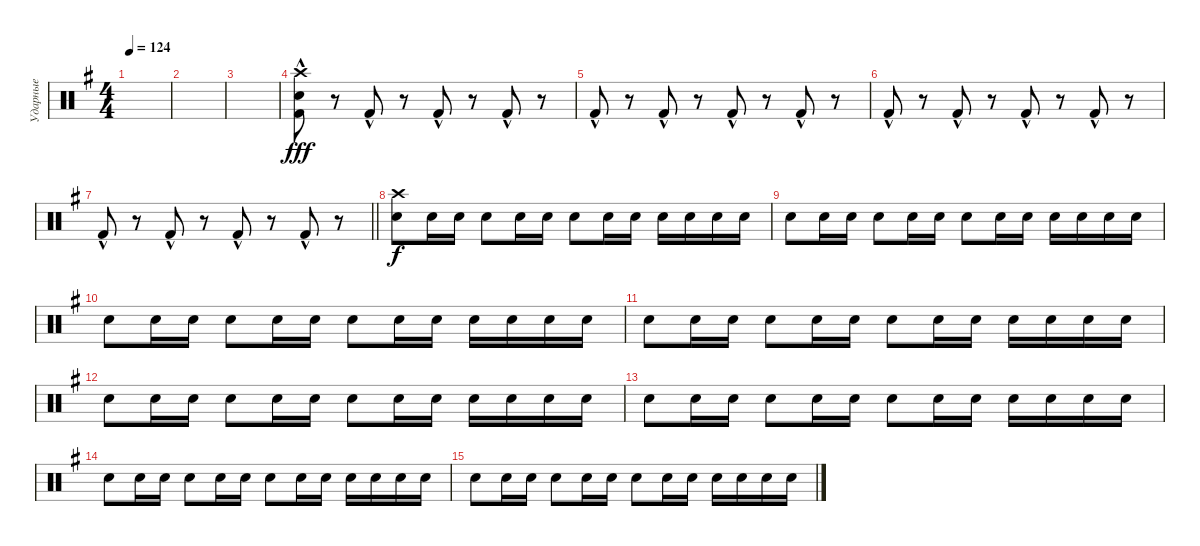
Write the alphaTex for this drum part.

\track ("Ударные" "Ударные") {instrument percussion}
\staff {score}
\articulation defaults
\ts (4 4)
\tempo 124
\clef neutral
\ks g
|
|
|
("Crash high (hit)"{hac} "Electric Snare (hit)"{hac} "Kick (hit) 2"{hac}).8{dy fff} r.8 "Kick (hit) 2"{hac}.8 r.8 "Kick (hit) 2"{hac}.8 r.8 "Kick (hit) 2"{hac}.8 r.8 |
"Kick (hit) 2"{hac}.8 r.8 "Kick (hit) 2"{hac}.8 r.8 "Kick (hit) 2"{hac}.8 r.8 "Kick (hit) 2"{hac}.8 r.8 |
"Kick (hit) 2"{hac}.8 r.8 "Kick (hit) 2"{hac}.8 r.8 "Kick (hit) 2"{hac}.8 r.8 "Kick (hit) 2"{hac}.8 r.8 |
\barLineRight lightlight "Kick (hit) 2"{hac}.8
r.8 "Kick (hit) 2"{hac}.8 r.8 "Kick (hit) 2"{hac}.8 r.8 "Kick (hit) 2"{hac}.8 r.8 |
("Crash high (hit)" "Electric Snare (hit)").8{dy f volume 9} "Electric Snare (hit)".16 "Electric Snare (hit)".16 "Electric Snare (hit)".8 "Electric Snare (hit)".16 "Electric Snare (hit)".16 "Electric Snare (hit)".8 "Electric Snare (hit)".16 "Electric Snare (hit)".16 "Electric Snare (hit)".16 "Electric Snare (hit)".16 "Electric Snare (hit)".16 "Electric Snare (hit)".16 |
"Electric Snare (hit)".8{volume 9} "Electric Snare (hit)".16 "Electric Snare (hit)".16 "Electric Snare (hit)".8 "Electric Snare (hit)".16 "Electric Snare (hit)".16 "Electric Snare (hit)".8 "Electric Snare (hit)".16 "Electric Snare (hit)".16 "Electric Snare (hit)".16 "Electric Snare (hit)".16 "Electric Snare (hit)".16 "Electric Snare (hit)".16 |
"Electric Snare (hit)".8{volume 9} "Electric Snare (hit)".16 "Electric Snare (hit)".16 "Electric Snare (hit)".8 "Electric Snare (hit)".16 "Electric Snare (hit)".16 "Electric Snare (hit)".8 "Electric Snare (hit)".16 "Electric Snare (hit)".16 "Electric Snare (hit)".16 "Electric Snare (hit)".16 "Electric Snare (hit)".16 "Electric Snare (hit)".16 |
"Electric Snare (hit)".8{volume 9} "Electric Snare (hit)".16 "Electric Snare (hit)".16 "Electric Snare (hit)".8 "Electric Snare (hit)".16 "Electric Snare (hit)".16 "Electric Snare (hit)".8 "Electric Snare (hit)".16 "Electric Snare (hit)".16 "Electric Snare (hit)".16 "Electric Snare (hit)".16 "Electric Snare (hit)".16 "Electric Snare (hit)".16 |
"Electric Snare (hit)".8{volume 9} "Electric Snare (hit)".16 "Electric Snare (hit)".16 "Electric Snare (hit)".8 "Electric Snare (hit)".16 "Electric Snare (hit)".16 "Electric Snare (hit)".8 "Electric Snare (hit)".16 "Electric Snare (hit)".16 "Electric Snare (hit)".16 "Electric Snare (hit)".16 "Electric Snare (hit)".16 "Electric Snare (hit)".16 |
"Electric Snare (hit)".8{volume 9} "Electric Snare (hit)".16 "Electric Snare (hit)".16 "Electric Snare (hit)".8 "Electric Snare (hit)".16 "Electric Snare (hit)".16 "Electric Snare (hit)".8 "Electric Snare (hit)".16 "Electric Snare (hit)".16 "Electric Snare (hit)".16 "Electric Snare (hit)".16 "Electric Snare (hit)".16 "Electric Snare (hit)".16 |
"Electric Snare (hit)".8{volume 9} "Electric Snare (hit)".16 "Electric Snare (hit)".16 "Electric Snare (hit)".8 "Electric Snare (hit)".16 "Electric Snare (hit)".16 "Electric Snare (hit)".8 "Electric Snare (hit)".16 "Electric Snare (hit)".16 "Electric Snare (hit)".16 "Electric Snare (hit)".16 "Electric Snare (hit)".16 "Electric Snare (hit)".16 |
"Electric Snare (hit)".8{volume 9} "Electric Snare (hit)".16 "Electric Snare (hit)".16 "Electric Snare (hit)".8 "Electric Snare (hit)".16 "Electric Snare (hit)".16 "Electric Snare (hit)".8 "Electric Snare (hit)".16 "Electric Snare (hit)".16 "Electric Snare (hit)".16 "Electric Snare (hit)".16 "Electric Snare (hit)".16 "Electric Snare (hit)".16
